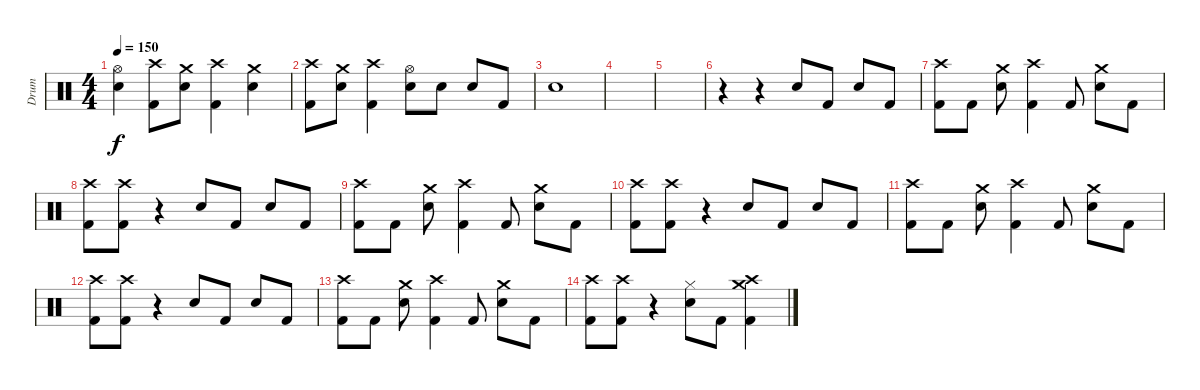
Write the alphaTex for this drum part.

\track ("Drum" "Drum") {instrument percussion}
\staff {score}
\articulation defaults
\ts (4 4)
\tempo 150
\clef neutral
\ks c
("Hi-Hat (open)" "Electric Snare (hit)").4{dy f} ("Crash high (hit)" "Kick (hit) 2").8 ("Crash medium (hit)" "Electric Snare (hit)").8 ("Crash high (hit)" "Kick (hit) 2").4 ("Crash medium (hit)" "Electric Snare (hit)").4 |
("Crash high (hit)" "Kick (hit) 2").8 ("Crash medium (hit)" "Electric Snare (hit)").8 ("Crash high (hit)" "Kick (hit) 2").4 ("Hi-Hat (open)" "Electric Snare (hit)").8 "Electric Snare (hit)".8 "Electric Snare (hit)".8 "Kick (hit) 2".8 |
"Electric Snare (hit)".1 |
|
|
r.4 r.4 "Electric Snare (hit)".8 "Kick (hit) 2".8 "Electric Snare (hit)".8 "Kick (hit) 2".8 |
("Crash high (hit)" "Kick (hit) 2").8 "Kick (hit) 2".8 ("Crash medium (hit)" "Electric Snare (hit)").8 ("Crash high (hit)" "Kick (hit) 2").4 "Kick (hit) 2".8 ("Crash medium (hit)" "Electric Snare (hit)").8 "Kick (hit) 2".8 |
("Crash high (hit)" "Kick (hit) 2").8 ("Crash high (hit)" "Kick (hit) 2").8 r.4 "Electric Snare (hit)".8 "Kick (hit) 2".8 "Electric Snare (hit)".8 "Kick (hit) 2".8 |
("Crash high (hit)" "Kick (hit) 2").8 "Kick (hit) 2".8 ("Crash medium (hit)" "Electric Snare (hit)").8 ("Crash high (hit)" "Kick (hit) 2").4 "Kick (hit) 2".8 ("Crash medium (hit)" "Electric Snare (hit)").8 "Kick (hit) 2".8 |
("Crash high (hit)" "Kick (hit) 2").8 ("Crash high (hit)" "Kick (hit) 2").8 r.4 "Electric Snare (hit)".8 "Kick (hit) 2".8 "Electric Snare (hit)".8 "Kick (hit) 2".8 |
("Crash high (hit)" "Kick (hit) 2").8 "Kick (hit) 2".8 ("Crash medium (hit)" "Electric Snare (hit)").8 ("Crash high (hit)" "Kick (hit) 2").4 "Kick (hit) 2".8 ("Crash medium (hit)" "Electric Snare (hit)").8 "Kick (hit) 2".8 |
("Crash high (hit)" "Kick (hit) 2").8 ("Crash high (hit)" "Kick (hit) 2").8 r.4 "Electric Snare (hit)".8 "Kick (hit) 2".8 "Electric Snare (hit)".8 "Kick (hit) 2".8 |
("Crash high (hit)" "Kick (hit) 2").8 "Kick (hit) 2".8 ("Crash medium (hit)" "Electric Snare (hit)").8 ("Crash high (hit)" "Kick (hit) 2").4 "Kick (hit) 2".8 ("Crash medium (hit)" "Electric Snare (hit)").8 "Kick (hit) 2".8 |
("Crash high (hit)" "Kick (hit) 2").8 ("Crash high (hit)" "Kick (hit) 2").8 r.4 ("Hi-Hat (closed)" "Electric Snare (hit)").8 "Kick (hit) 2".8 ("Crash high (hit)" "Crash medium (hit)" "Kick (hit) 2").4
